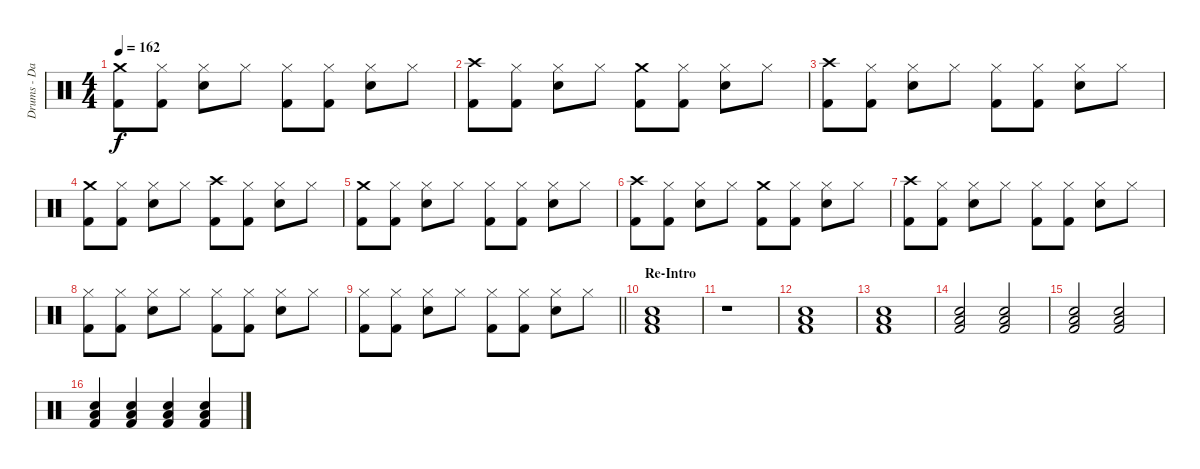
\track ("Drums - David Holland" "Drums - Da") {instrument percussion}
\staff {score}
\articulation defaults
\ts (4 4)
\tempo 162
\clef neutral
\ks c
("Crash medium (hit)" "Kick (hit) 2").8{dy f} ("Hi-Hat (closed)" "Kick (hit) 2").8 ("Hi-Hat (closed)" "Snare (hit) 2").8 "Hi-Hat (closed)".8 ("Hi-Hat (closed)" "Kick (hit) 2").8 ("Hi-Hat (closed)" "Kick (hit) 2").8 ("Hi-Hat (closed)" "Snare (hit) 2").8 "Hi-Hat (closed)".8 |
("Crash high (hit)" "Kick (hit) 2").8 ("Hi-Hat (closed)" "Kick (hit) 2").8 ("Hi-Hat (closed)" "Snare (hit) 2").8 "Hi-Hat (closed)".8 ("Crash medium (hit)" "Kick (hit) 2").8 ("Hi-Hat (closed)" "Kick (hit) 2").8 ("Hi-Hat (closed)" "Snare (hit) 2").8 "Hi-Hat (closed)".8 |
("Crash high (hit)" "Kick (hit) 2").8 ("Hi-Hat (closed)" "Kick (hit) 2").8 ("Hi-Hat (closed)" "Snare (hit) 2").8 "Hi-Hat (closed)".8 ("Hi-Hat (closed)" "Kick (hit) 2").8 ("Hi-Hat (closed)" "Kick (hit) 2").8 ("Hi-Hat (closed)" "Snare (hit) 2").8 "Hi-Hat (closed)".8 |
("Crash medium (hit)" "Kick (hit) 2").8 ("Hi-Hat (closed)" "Kick (hit) 2").8 ("Hi-Hat (closed)" "Snare (hit) 2").8 "Hi-Hat (closed)".8 ("Crash high (hit)" "Kick (hit) 2").8 ("Hi-Hat (closed)" "Kick (hit) 2").8 ("Hi-Hat (closed)" "Snare (hit) 2").8 "Hi-Hat (closed)".8 |
("Crash medium (hit)" "Kick (hit) 2").8 ("Hi-Hat (closed)" "Kick (hit) 2").8 ("Hi-Hat (closed)" "Snare (hit) 2").8 "Hi-Hat (closed)".8 ("Hi-Hat (closed)" "Kick (hit) 2").8 ("Hi-Hat (closed)" "Kick (hit) 2").8 ("Hi-Hat (closed)" "Snare (hit) 2").8 "Hi-Hat (closed)".8 |
("Crash high (hit)" "Kick (hit) 2").8 ("Hi-Hat (closed)" "Kick (hit) 2").8 ("Hi-Hat (closed)" "Snare (hit) 2").8 "Hi-Hat (closed)".8 ("Crash medium (hit)" "Kick (hit) 2").8 ("Hi-Hat (closed)" "Kick (hit) 2").8 ("Hi-Hat (closed)" "Snare (hit) 2").8 "Hi-Hat (closed)".8 |
("Crash high (hit)" "Kick (hit) 2").8 ("Hi-Hat (closed)" "Kick (hit) 2").8 ("Hi-Hat (closed)" "Snare (hit) 2").8 "Hi-Hat (closed)".8 ("Hi-Hat (closed)" "Kick (hit) 2").8 ("Hi-Hat (closed)" "Kick (hit) 2").8 ("Hi-Hat (closed)" "Snare (hit) 2").8 "Hi-Hat (closed)".8 |
("Hi-Hat (closed)" "Kick (hit) 2").8 ("Hi-Hat (closed)" "Kick (hit) 2").8 ("Hi-Hat (closed)" "Snare (hit) 2").8 "Hi-Hat (closed)".8 ("Hi-Hat (closed)" "Kick (hit) 2").8 ("Hi-Hat (closed)" "Kick (hit) 2").8 ("Hi-Hat (closed)" "Snare (hit) 2").8 "Hi-Hat (closed)".8 |
\barLineRight lightlight
("Hi-Hat (closed)" "Kick (hit) 2").8 ("Hi-Hat (closed)" "Kick (hit) 2").8 ("Hi-Hat (closed)" "Snare (hit) 2").8 "Hi-Hat (closed)".8 ("Hi-Hat (closed)" "Kick (hit) 2").8 ("Hi-Hat (closed)" "Kick (hit) 2").8 ("Hi-Hat (closed)" "Snare (hit) 2").8 "Hi-Hat (closed)".8 |
\section ("" "Re-Intro")
("Low Floor Tom (hit)" "Snare (hit) 2" "Kick (hit) 2").1 |
r.1 |
("Low Floor Tom (hit)" "Snare (hit) 2" "Kick (hit) 2").1 |
("Low Floor Tom (hit)" "Snare (hit) 2" "Kick (hit) 2").1 |
("Low Floor Tom (hit)" "Snare (hit) 2" "Kick (hit) 2").2 ("Low Floor Tom (hit)" "Snare (hit) 2" "Kick (hit) 2").2 |
("Low Floor Tom (hit)" "Snare (hit) 2" "Kick (hit) 2").2 ("Low Floor Tom (hit)" "Snare (hit) 2" "Kick (hit) 2").2 |
("Low Floor Tom (hit)" "Snare (hit) 2" "Kick (hit) 2").4 ("Low Floor Tom (hit)" "Snare (hit) 2" "Kick (hit) 2").4 ("Low Floor Tom (hit)" "Snare (hit) 2" "Kick (hit) 2").4 ("Low Floor Tom (hit)" "Snare (hit) 2" "Kick (hit) 2").4
